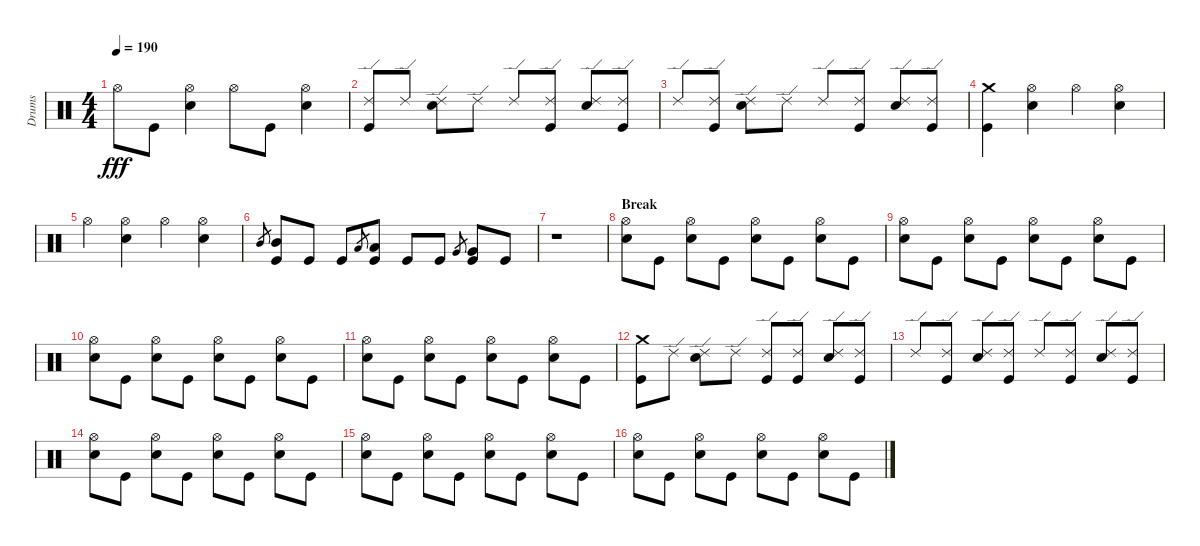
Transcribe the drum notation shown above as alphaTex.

\track ("Drums" "Drums") {instrument percussion}
\staff {score}
\articulation defaults
\ts (4 4)
\tempo 190
\clef neutral
\ks c "Hi-Hat (open)".8{dy fff} "Kick (hit)".8
("Hi-Hat (open)" "Snare (hit) 2").4 "Hi-Hat (open)".8 "Kick (hit)".8 ("Hi-Hat (open)" "Snare (hit) 2").4 |
("Ride (edge) 2" "Kick (hit)").8 "Ride (edge) 2".8 ("Ride (edge) 2" "Snare (hit) 2").8 "Ride (edge) 2".8 "Ride (edge) 2".8 ("Ride (edge) 2" "Kick (hit)").8 ("Ride (edge) 2" "Snare (hit) 2").8 ("Ride (edge) 2" "Kick (hit)").8 |
"Ride (edge) 2".8 ("Ride (edge) 2" "Kick (hit)").8 ("Ride (edge) 2" "Snare (hit) 2").8 "Ride (edge) 2".8 "Ride (edge) 2".8 ("Ride (edge) 2" "Kick (hit)").8 ("Ride (edge) 2" "Snare (hit) 2").8 ("Ride (edge) 2" "Kick (hit)").8 |
("Crash medium (hit)" "Kick (hit)").4 ("Hi-Hat (open)" "Snare (hit) 2").4 "Hi-Hat (open)".4 ("Hi-Hat (open)" "Snare (hit) 2").4 |
"Hi-Hat (open)".4 ("Hi-Hat (open)" "Snare (hit) 2").4 "Hi-Hat (open)".4 ("Hi-Hat (open)" "Snare (hit) 2").4 |
"Mid Tom (hit)".8{gr} ("Mid Tom (hit)" "Kick (hit)").8 "Kick (hit)".8 "Kick (hit)".8 "Low Tom (hit)".8{gr} ("Low Tom (hit)" "Kick (hit)").8 "Kick (hit)".8 "Kick (hit)".8 "Very Low Tom (hit)".8{gr} ("Very Low Tom (hit)" "Kick (hit)").8 "Kick (hit)".8 |
r.1 |
\section ("" "Break")
("Hi-Hat (open)" "Snare (hit) 2").8 "Kick (hit)".8 ("Hi-Hat (open)" "Snare (hit) 2").8 "Kick (hit)".8 ("Hi-Hat (open)" "Snare (hit) 2").8 "Kick (hit)".8 ("Hi-Hat (open)" "Snare (hit) 2").8 "Kick (hit)".8 |
("Hi-Hat (open)" "Snare (hit) 2").8 "Kick (hit)".8 ("Hi-Hat (open)" "Snare (hit) 2").8 "Kick (hit)".8 ("Hi-Hat (open)" "Snare (hit) 2").8 "Kick (hit)".8 ("Hi-Hat (open)" "Snare (hit) 2").8 "Kick (hit)".8 |
("Hi-Hat (open)" "Snare (hit) 2").8 "Kick (hit)".8 ("Hi-Hat (open)" "Snare (hit) 2").8 "Kick (hit)".8 ("Hi-Hat (open)" "Snare (hit) 2").8 "Kick (hit)".8 ("Hi-Hat (open)" "Snare (hit) 2").8 "Kick (hit)".8 |
("Hi-Hat (open)" "Snare (hit) 2").8 "Kick (hit)".8 ("Hi-Hat (open)" "Snare (hit) 2").8 "Kick (hit)".8 ("Hi-Hat (open)" "Snare (hit) 2").8 "Kick (hit)".8 ("Hi-Hat (open)" "Snare (hit) 2").8 "Kick (hit)".8 |
("Crash medium (hit)" "Kick (hit)").8 "Ride (edge) 2".8 ("Ride (edge) 2" "Snare (hit) 2").8 "Ride (edge) 2".8 ("Ride (edge) 2" "Kick (hit)").8 ("Ride (edge) 2" "Kick (hit)").8 ("Ride (edge) 2" "Snare (hit) 2").8 ("Ride (edge) 2" "Kick (hit)").8 |
"Ride (edge) 2".8 ("Ride (edge) 2" "Kick (hit)").8 ("Ride (edge) 2" "Snare (hit) 2").8 ("Ride (edge) 2" "Kick (hit)").8 "Ride (edge) 2".8 ("Ride (edge) 2" "Kick (hit)").8 ("Ride (edge) 2" "Snare (hit) 2").8 ("Ride (edge) 2" "Kick (hit)").8 |
("Hi-Hat (open)" "Snare (hit) 2").8 "Kick (hit)".8 ("Hi-Hat (open)" "Snare (hit) 2").8 "Kick (hit)".8 ("Hi-Hat (open)" "Snare (hit) 2").8 "Kick (hit)".8 ("Hi-Hat (open)" "Snare (hit) 2").8 "Kick (hit)".8 |
("Hi-Hat (open)" "Snare (hit) 2").8 "Kick (hit)".8 ("Hi-Hat (open)" "Snare (hit) 2").8 "Kick (hit)".8 ("Hi-Hat (open)" "Snare (hit) 2").8 "Kick (hit)".8 ("Hi-Hat (open)" "Snare (hit) 2").8 "Kick (hit)".8 |
("Hi-Hat (open)" "Snare (hit) 2").8 "Kick (hit)".8 ("Hi-Hat (open)" "Snare (hit) 2").8 "Kick (hit)".8 ("Hi-Hat (open)" "Snare (hit) 2").8 "Kick (hit)".8 ("Hi-Hat (open)" "Snare (hit) 2").8 "Kick (hit)".8
